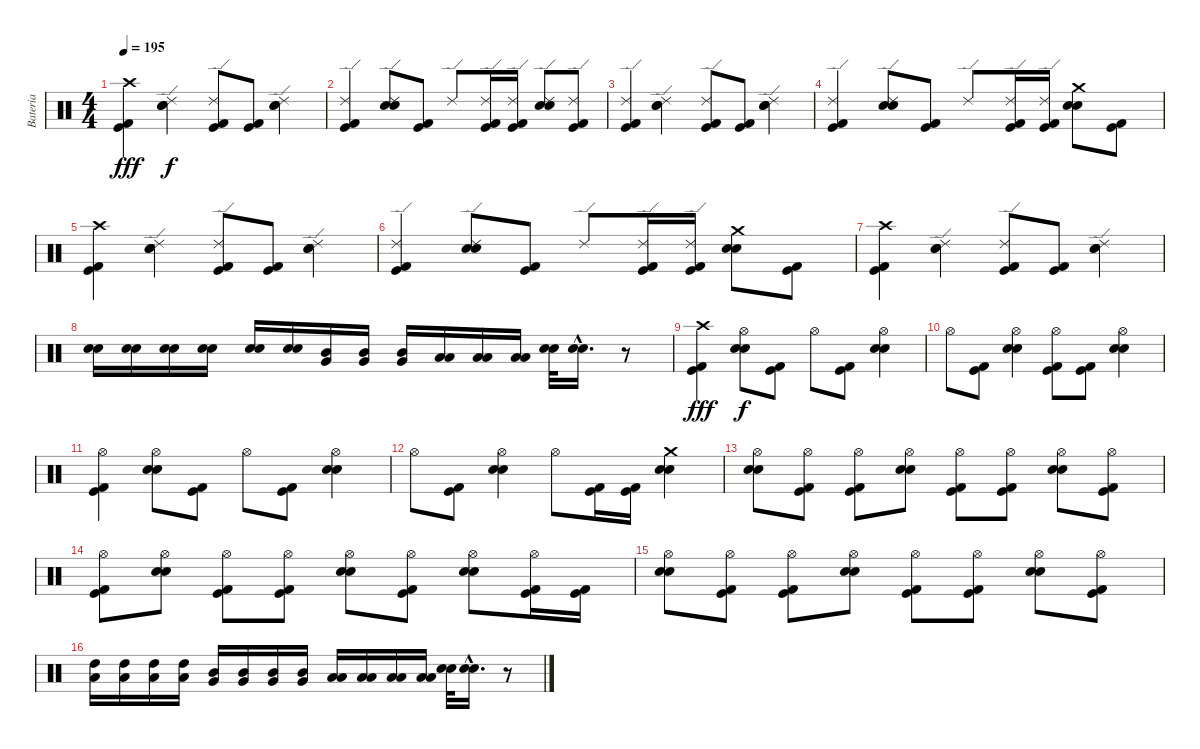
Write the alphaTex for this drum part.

\track ("Bateria" "Bateria") {instrument percussion}
\staff {score}
\articulation defaults
\ts (4 4)
\tempo 195
\clef neutral
\ks c
("Crash high (hit)" "Kick (hit) 2" "Kick (hit)").4{dy fff} ("Ride (edge) 2" "Electric Snare (hit)" "Snare (hit) 2").4{dy f} ("Ride (edge) 2" "Kick (hit) 2" "Kick (hit)").8 ("Kick (hit) 2" "Kick (hit)").8 ("Ride (edge) 2" "Electric Snare (hit)" "Snare (hit) 2").4 |
("Ride (edge) 2" "Kick (hit) 2" "Kick (hit)").4 ("Ride (edge) 2" "Electric Snare (hit)" "Snare (hit) 2").8 ("Kick (hit) 2" "Kick (hit)").8 "Ride (edge) 2".8 ("Ride (edge) 2" "Kick (hit) 2" "Kick (hit)").16 ("Ride (edge) 2" "Kick (hit) 2" "Kick (hit)").16 ("Ride (edge) 2" "Electric Snare (hit)" "Snare (hit) 2").8 ("Ride (edge) 2" "Kick (hit) 2" "Kick (hit)").8 |
("Ride (edge) 2" "Kick (hit) 2" "Kick (hit)").4 ("Ride (edge) 2" "Electric Snare (hit)" "Snare (hit) 2").4 ("Ride (edge) 2" "Kick (hit) 2" "Kick (hit)").8 ("Kick (hit) 2" "Kick (hit)").8 ("Ride (edge) 2" "Electric Snare (hit)" "Snare (hit) 2").4 |
("Ride (edge) 2" "Kick (hit) 2" "Kick (hit)").4 ("Ride (edge) 2" "Electric Snare (hit)" "Snare (hit) 2").8 ("Kick (hit) 2" "Kick (hit)").8 "Ride (edge) 2".8 ("Ride (edge) 2" "Kick (hit) 2" "Kick (hit)").16 ("Ride (edge) 2" "Kick (hit) 2" "Kick (hit)").16 ("Crash medium (hit)" "Electric Snare (hit)" "Snare (hit) 2").8 ("Kick (hit) 2" "Kick (hit)").8 |
("Crash high (hit)" "Kick (hit) 2" "Kick (hit)").4 ("Ride (edge) 2" "Electric Snare (hit)" "Snare (hit) 2").4 ("Ride (edge) 2" "Kick (hit) 2" "Kick (hit)").8 ("Kick (hit) 2" "Kick (hit)").8 ("Ride (edge) 2" "Electric Snare (hit)" "Snare (hit) 2").4 |
("Ride (edge) 2" "Kick (hit) 2" "Kick (hit)").4 ("Ride (edge) 2" "Electric Snare (hit)" "Snare (hit) 2").8 ("Kick (hit) 2" "Kick (hit)").8 "Ride (edge) 2".8 ("Ride (edge) 2" "Kick (hit) 2" "Kick (hit)").16 ("Ride (edge) 2" "Kick (hit) 2" "Kick (hit)").16 ("Crash medium (hit)" "Electric Snare (hit)" "Snare (hit) 2").8 ("Kick (hit) 2" "Kick (hit)").8 |
("Crash high (hit)" "Kick (hit) 2" "Kick (hit)").4 ("Ride (edge) 2" "Electric Snare (hit)" "Snare (hit) 2").4 ("Ride (edge) 2" "Kick (hit) 2" "Kick (hit)").8 ("Kick (hit) 2" "Kick (hit)").8 ("Ride (edge) 2" "Electric Snare (hit)" "Snare (hit) 2").4 |
("Electric Snare (hit)" "Snare (hit) 2").16 ("Electric Snare (hit)" "Snare (hit) 2").16 ("Electric Snare (hit)" "Snare (hit) 2").16 ("Electric Snare (hit)" "Snare (hit) 2").16 ("Electric Snare (hit)" "Snare (hit) 2").16 ("Electric Snare (hit)" "Snare (hit) 2").16 ("Mid Tom (hit)" "Very Low Tom (hit)").16 ("Mid Tom (hit)" "Very Low Tom (hit)").16 ("Mid Tom (hit)" "Very Low Tom (hit)").16 ("Low Tom (hit)" "Low Floor Tom (hit)").16 ("Low Tom (hit)" "Low Floor Tom (hit)").16 ("Low Tom (hit)" "Low Floor Tom (hit)").16 ("Electric Snare (hit)" "Snare (hit) 2").32 ("Electric Snare (hit)"{hac} "Snare (hit) 2"{hac}).16{d} r.8 |
("Crash high (hit)" "Kick (hit) 2" "Kick (hit)").4{dy fff} ("Hi-Hat (open)" "Electric Snare (hit)" "Snare (hit) 2").8{dy f} ("Kick (hit) 2" "Kick (hit)").8 "Hi-Hat (open)".8 ("Kick (hit) 2" "Kick (hit)").8 ("Hi-Hat (open)" "Electric Snare (hit)" "Snare (hit) 2").4 |
"Hi-Hat (open)".8 ("Kick (hit) 2" "Kick (hit)").8 ("Hi-Hat (open)" "Electric Snare (hit)" "Snare (hit) 2").4 ("Hi-Hat (open)" "Kick (hit) 2" "Kick (hit)").8 ("Kick (hit) 2" "Kick (hit)").8 ("Hi-Hat (open)" "Electric Snare (hit)" "Snare (hit) 2").4 |
("Hi-Hat (open)" "Kick (hit) 2" "Kick (hit)").4 ("Hi-Hat (open)" "Electric Snare (hit)" "Snare (hit) 2").8 ("Kick (hit) 2" "Kick (hit)").8 "Hi-Hat (open)".8 ("Kick (hit) 2" "Kick (hit)").8 ("Hi-Hat (open)" "Electric Snare (hit)" "Snare (hit) 2").4 |
"Hi-Hat (open)".8 ("Kick (hit) 2" "Kick (hit)").8 ("Hi-Hat (open)" "Electric Snare (hit)" "Snare (hit) 2").4 "Hi-Hat (open)".8 ("Kick (hit) 2" "Kick (hit)").16 ("Kick (hit) 2" "Kick (hit)").16 ("Crash medium (hit)" "Electric Snare (hit)" "Snare (hit) 2").4 |
("Hi-Hat (open)" "Electric Snare (hit)" "Snare (hit) 2").8 ("Hi-Hat (open)" "Kick (hit) 2" "Kick (hit)").8 ("Hi-Hat (open)" "Kick (hit) 2" "Kick (hit)").8 ("Hi-Hat (open)" "Electric Snare (hit)" "Snare (hit) 2").8 ("Hi-Hat (open)" "Kick (hit) 2" "Kick (hit)").8 ("Hi-Hat (open)" "Kick (hit) 2" "Kick (hit)").8 ("Hi-Hat (open)" "Electric Snare (hit)" "Snare (hit) 2").8 ("Hi-Hat (open)" "Kick (hit) 2" "Kick (hit)").8 |
("Hi-Hat (open)" "Kick (hit) 2" "Kick (hit)").8 ("Hi-Hat (open)" "Electric Snare (hit)" "Snare (hit) 2").8 ("Hi-Hat (open)" "Kick (hit) 2" "Kick (hit)").8 ("Hi-Hat (open)" "Kick (hit) 2" "Kick (hit)").8 ("Hi-Hat (open)" "Electric Snare (hit)" "Snare (hit) 2").8 ("Hi-Hat (open)" "Kick (hit) 2" "Kick (hit)").8 ("Hi-Hat (open)" "Electric Snare (hit)" "Snare (hit) 2").8 ("Hi-Hat (open)" "Kick (hit) 2" "Kick (hit)").16 ("Kick (hit) 2" "Kick (hit)").16 |
("Hi-Hat (open)" "Electric Snare (hit)" "Snare (hit) 2").8 ("Hi-Hat (open)" "Kick (hit) 2" "Kick (hit)").8 ("Hi-Hat (open)" "Kick (hit) 2" "Kick (hit)").8 ("Hi-Hat (open)" "Electric Snare (hit)" "Snare (hit) 2").8 ("Hi-Hat (open)" "Kick (hit) 2" "Kick (hit)").8 ("Hi-Hat (open)" "Kick (hit) 2" "Kick (hit)").8 ("Hi-Hat (open)" "Electric Snare (hit)" "Snare (hit) 2").8 ("Hi-Hat (open)" "Kick (hit) 2" "Kick (hit)").8 |
("High Tom (hit)" "Low Tom (hit)").16 ("High Tom (hit)" "Low Tom (hit)").16 ("High Tom (hit)" "Low Tom (hit)").16 ("High Tom (hit)" "Low Tom (hit)").16 ("Mid Tom (hit)" "Very Low Tom (hit)").16 ("Mid Tom (hit)" "Very Low Tom (hit)").16 ("Mid Tom (hit)" "Very Low Tom (hit)").16 ("Mid Tom (hit)" "Very Low Tom (hit)").16 ("Low Tom (hit)" "Low Floor Tom (hit)").16 ("Low Tom (hit)" "Low Floor Tom (hit)").16 ("Low Tom (hit)" "Low Floor Tom (hit)").16 ("Low Tom (hit)" "Low Floor Tom (hit)").16 ("Electric Snare (hit)" "Snare (hit) 2").32 ("Electric Snare (hit)"{hac} "Snare (hit) 2"{hac}).16{d} r.8
